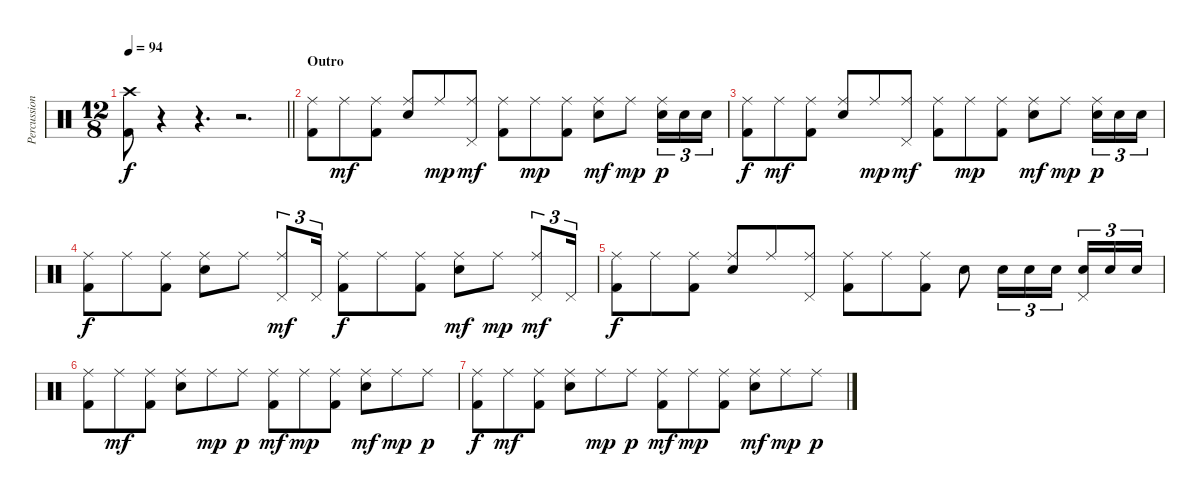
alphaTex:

\track ("Percussions" "Percussion") {instrument percussion}
\staff {score}
\articulation defaults
\ts (12 8)
\tempo 94
\clef neutral
\barLineRight lightlight
\ks c
("Crash high (hit)" "Kick (hit) 2").8{dy f} r.4 r.4{d} r.2{d} |
\section ("" "Outro")
("Ride (middle)" "Kick (hit) 2").8 "Ride (middle)".8{dy mf} ("Ride (middle)" "Kick (hit) 2").8 ("Ride (middle)" "Electric Snare (hit)").8 "Ride (middle)".8{dy mp} ("Ride (middle)" "Pedal Hi-Hat (hit)").8{dy mf} ("Ride (middle)" "Kick (hit) 2").8 "Ride (middle)".8{dy mp} ("Ride (middle)" "Kick (hit) 2").8 ("Ride (middle)" "Electric Snare (hit)").8{dy mf} "Ride (middle)".8{dy mp} ("Ride (middle)" "Electric Snare (hit)").16{tu (3 2) dy p} "Electric Snare (hit)".16{tu (3 2)} "Electric Snare (hit)".16{tu (3 2)} |
("Ride (middle)" "Kick (hit) 2").8{dy f} "Ride (middle)".8{dy mf} ("Ride (middle)" "Kick (hit) 2").8 ("Ride (middle)" "Electric Snare (hit)").8 "Ride (middle)".8{dy mp} ("Ride (middle)" "Pedal Hi-Hat (hit)").8{dy mf} ("Ride (middle)" "Kick (hit) 2").8 "Ride (middle)".8{dy mp} ("Ride (middle)" "Kick (hit) 2").8 ("Ride (middle)" "Electric Snare (hit)").8{dy mf} "Ride (middle)".8{dy mp} ("Ride (middle)" "Electric Snare (hit)").16{tu (3 2) dy p} "Electric Snare (hit)".16{tu (3 2)} "Electric Snare (hit)".16{tu (3 2)} |
("Ride (middle)" "Kick (hit) 2").8{dy f} "Ride (middle)".8 ("Ride (middle)" "Kick (hit) 2").8 ("Ride (middle)" "Electric Snare (hit)").8 "Ride (middle)".8 ("Ride (middle)" "Pedal Hi-Hat (hit)").8{tu (3 2) dy mf} "Pedal Hi-Hat (hit)".16{tu (3 2)} ("Ride (middle)" "Kick (hit) 2").8{dy f} "Ride (middle)".8 ("Ride (middle)" "Kick (hit) 2").8 ("Ride (middle)" "Electric Snare (hit)").8{dy mf} "Ride (middle)".8{dy mp} ("Ride (middle)" "Pedal Hi-Hat (hit)").8{tu (3 2) dy mf} "Pedal Hi-Hat (hit)".16{tu (3 2)} |
("Ride (middle)" "Kick (hit) 2").8{dy f} "Ride (middle)".8 ("Ride (middle)" "Kick (hit) 2").8 ("Ride (middle)" "Electric Snare (hit)").8 "Ride (middle)".8 ("Ride (middle)" "Pedal Hi-Hat (hit)").8 ("Ride (middle)" "Kick (hit) 2").8 "Ride (middle)".8 ("Ride (middle)" "Kick (hit) 2").8 "Electric Snare (hit)".8 "Electric Snare (hit)".16{tu (3 2)} "Electric Snare (hit)".16{tu (3 2)} "Electric Snare (hit)".16{tu (3 2) beam splitsecondary} ("Pedal Hi-Hat (hit)" "Electric Snare (hit)").16{tu (3 2)} "Electric Snare (hit)".16{tu (3 2)} "Electric Snare (hit)".16{tu (3 2)} |
("Ride (middle)" "Kick (hit) 2").8 "Ride (middle)".8{dy mf} ("Ride (middle)" "Kick (hit) 2").8 ("Ride (middle)" "Electric Snare (hit)").8 "Ride (middle)".8{dy mp} "Ride (middle)".8{dy p} ("Ride (middle)" "Kick (hit) 2").8{dy mf} "Ride (middle)".8{dy mp} ("Ride (middle)" "Kick (hit) 2").8 ("Ride (middle)" "Electric Snare (hit)").8{dy mf} "Ride (middle)".8{dy mp} "Ride (middle)".8{dy p} |
("Ride (middle)" "Kick (hit) 2").8{dy f} "Ride (middle)".8{dy mf} ("Ride (middle)" "Kick (hit) 2").8 ("Ride (middle)" "Electric Snare (hit)").8 "Ride (middle)".8{dy mp} "Ride (middle)".8{dy p} ("Ride (middle)" "Kick (hit) 2").8{dy mf} "Ride (middle)".8{dy mp} ("Ride (middle)" "Kick (hit) 2").8 ("Ride (middle)" "Electric Snare (hit)").8{dy mf} "Ride (middle)".8{dy mp} "Ride (middle)".8{dy p}
